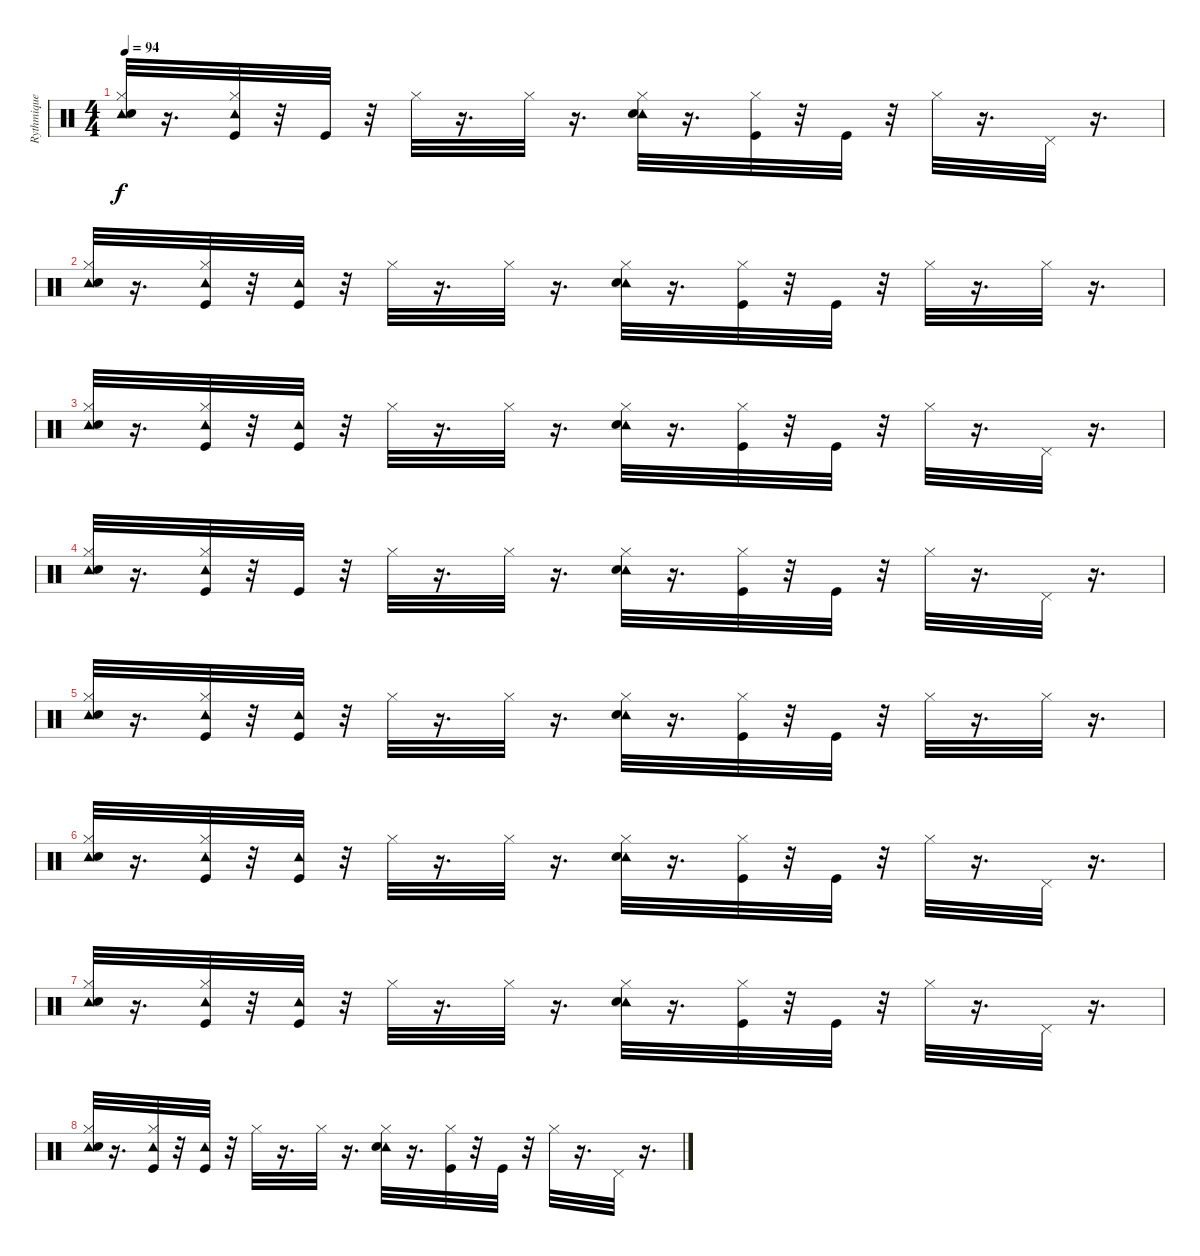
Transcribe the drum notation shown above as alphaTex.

\track ("Rythmique" "Rythmique") {instrument percussion}
\staff {score}
\articulation defaults
\ts (4 4)
\tempo 94
\clef neutral
\ks c
("Tambourine (hit)" "Hi-Hat (closed)" "Electric Snare (hit)").32{dy f} r.16{d} ("Tambourine (hit)" "Hi-Hat (closed)" "Kick (hit)").32 r.32 "Kick (hit)".32 r.32 "Hi-Hat (closed)".32 r.16{d} "Hi-Hat (closed)".32 r.16{d} ("Tambourine (hit)" "Hi-Hat (closed)" "Electric Snare (hit)").32 r.16{d} ("Hi-Hat (closed)" "Kick (hit)").32 r.32 "Kick (hit)".32 r.32 "Hi-Hat (closed)".32 r.16{d} "Pedal Hi-Hat (hit)".32 r.16{d} |
("Tambourine (hit)" "Hi-Hat (closed)" "Electric Snare (hit)").32 r.16{d} ("Tambourine (hit)" "Hi-Hat (closed)" "Kick (hit)").32 r.32 ("Tambourine (hit)" "Kick (hit)").32 r.32 "Hi-Hat (closed)".32 r.16{d} "Hi-Hat (closed)".32 r.16{d} ("Tambourine (hit)" "Hi-Hat (closed)" "Electric Snare (hit)").32 r.16{d} ("Hi-Hat (closed)" "Kick (hit)").32 r.32 "Kick (hit)".32 r.32 "Hi-Hat (closed)".32 r.16{d} "Hi-Hat (closed)".32 r.16{d} |
("Tambourine (hit)" "Hi-Hat (closed)" "Electric Snare (hit)").32 r.16{d} ("Tambourine (hit)" "Hi-Hat (closed)" "Kick (hit)").32 r.32 ("Tambourine (hit)" "Kick (hit)").32 r.32 "Hi-Hat (closed)".32 r.16{d} "Hi-Hat (closed)".32 r.16{d} ("Tambourine (hit)" "Hi-Hat (closed)" "Electric Snare (hit)").32 r.16{d} ("Hi-Hat (closed)" "Kick (hit)").32 r.32 "Kick (hit)".32 r.32 "Hi-Hat (closed)".32 r.16{d} "Pedal Hi-Hat (hit)".32 r.16{d} |
("Tambourine (hit)" "Hi-Hat (closed)" "Electric Snare (hit)").32 r.16{d} ("Tambourine (hit)" "Hi-Hat (closed)" "Kick (hit)").32 r.32 "Kick (hit)".32 r.32 "Hi-Hat (closed)".32 r.16{d} "Hi-Hat (closed)".32 r.16{d} ("Tambourine (hit)" "Hi-Hat (closed)" "Electric Snare (hit)").32 r.16{d} ("Hi-Hat (closed)" "Kick (hit)").32 r.32 "Kick (hit)".32 r.32 "Hi-Hat (closed)".32 r.16{d} "Pedal Hi-Hat (hit)".32 r.16{d} |
("Tambourine (hit)" "Hi-Hat (closed)" "Electric Snare (hit)").32 r.16{d} ("Tambourine (hit)" "Hi-Hat (closed)" "Kick (hit)").32 r.32 ("Tambourine (hit)" "Kick (hit)").32 r.32 "Hi-Hat (closed)".32 r.16{d} "Hi-Hat (closed)".32 r.16{d} ("Tambourine (hit)" "Hi-Hat (closed)" "Electric Snare (hit)").32 r.16{d} ("Hi-Hat (closed)" "Kick (hit)").32 r.32 "Kick (hit)".32 r.32 "Hi-Hat (closed)".32 r.16{d} "Hi-Hat (closed)".32 r.16{d} |
("Tambourine (hit)" "Hi-Hat (closed)" "Electric Snare (hit)").32 r.16{d} ("Tambourine (hit)" "Hi-Hat (closed)" "Kick (hit)").32 r.32 ("Tambourine (hit)" "Kick (hit)").32 r.32 "Hi-Hat (closed)".32 r.16{d} "Hi-Hat (closed)".32 r.16{d} ("Tambourine (hit)" "Hi-Hat (closed)" "Electric Snare (hit)").32 r.16{d} ("Hi-Hat (closed)" "Kick (hit)").32 r.32 "Kick (hit)".32 r.32 "Hi-Hat (closed)".32 r.16{d} "Pedal Hi-Hat (hit)".32 r.16{d} |
("Tambourine (hit)" "Hi-Hat (closed)" "Electric Snare (hit)").32 r.16{d} ("Tambourine (hit)" "Hi-Hat (closed)" "Kick (hit)").32 r.32 ("Tambourine (hit)" "Kick (hit)").32 r.32 "Hi-Hat (closed)".32 r.16{d} "Hi-Hat (closed)".32 r.16{d} ("Tambourine (hit)" "Hi-Hat (closed)" "Electric Snare (hit)").32 r.16{d} ("Hi-Hat (closed)" "Kick (hit)").32 r.32 "Kick (hit)".32 r.32 "Hi-Hat (closed)".32 r.16{d} "Pedal Hi-Hat (hit)".32 r.16{d} |
("Tambourine (hit)" "Hi-Hat (closed)" "Electric Snare (hit)").32 r.16{d} ("Tambourine (hit)" "Hi-Hat (closed)" "Kick (hit)").32 r.32 ("Tambourine (hit)" "Kick (hit)").32 r.32 "Hi-Hat (closed)".32 r.16{d} "Hi-Hat (closed)".32 r.16{d} ("Tambourine (hit)" "Hi-Hat (closed)" "Electric Snare (hit)").32 r.16{d} ("Hi-Hat (closed)" "Kick (hit)").32 r.32 "Kick (hit)".32 r.32 "Hi-Hat (closed)".32 r.16{d} "Pedal Hi-Hat (hit)".32 r.16{d}
